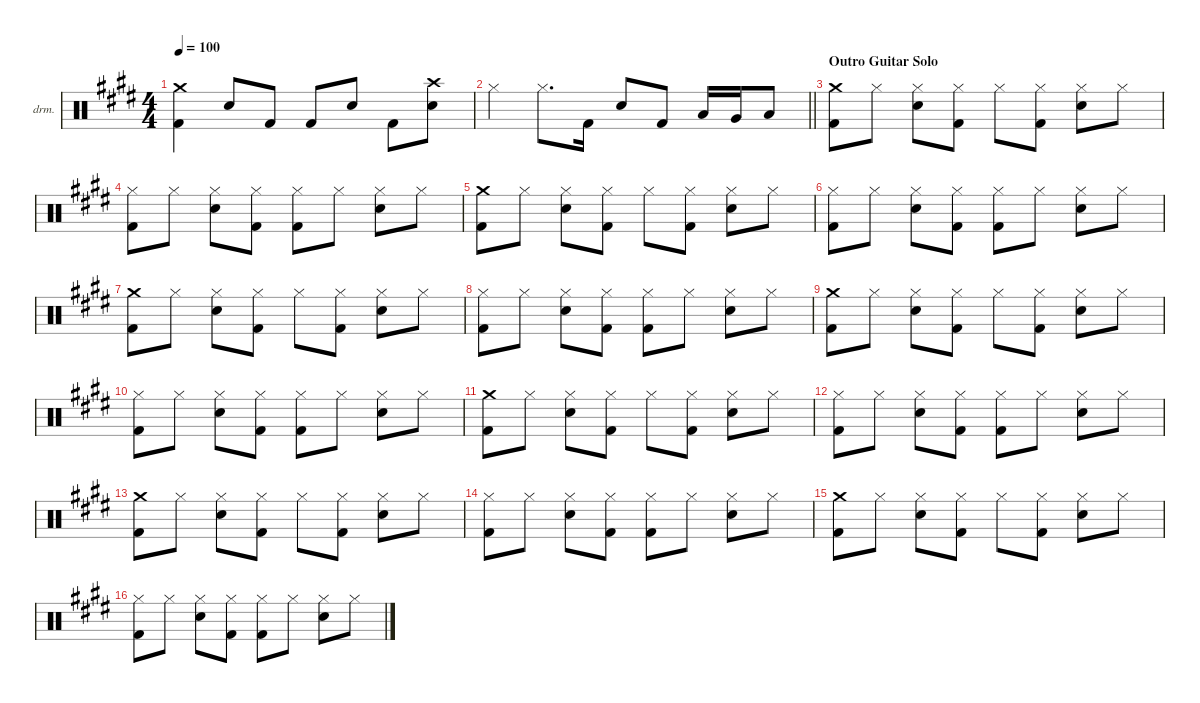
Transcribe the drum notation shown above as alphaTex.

\defaultSystemsLayout 4
\hideDynamics
\bracketExtendMode nobrackets
\firstSystemTrackNameOrientation horizontal
\otherSystemsTrackNameOrientation horizontal
\track ("Percussion" "drm.") {instrument percussion}
\staff {score}
\articulation defaults
\ts (4 4)
\tempo 100
\clef neutral
\ks c#minor
("Crash medium (hit)"{acc forcenatural} "Kick (hit) 2"{acc forcenatural}).4{dy f} "Snare (hit) 2"{acc forcenatural}.8 "Kick (hit) 2"{acc forcenatural}.8 "Kick (hit) 2"{acc forcenatural}.8 "Snare (hit) 2"{acc forcenatural}.8 "Kick (hit) 2"{acc forcenatural}.8 ("Crash high (hit)"{acc forcenatural} "Snare (hit) 2"{acc forcenatural}).8 |
\barLineRight lightlight "Hi-Hat (closed)"{acc forcenatural}.4 "Hi-Hat (closed)"{acc forcenatural}.8{d} "Kick (hit) 2"{acc forcenatural}.16 "Snare (hit) 2"{acc forcenatural}.8 "Kick (hit) 2"{acc forcenatural}.8 "Low Tom (hit)"{acc forcenatural}.16 "Very Low Tom (hit)"{acc forcenatural}.16 "Low Floor Tom (hit)"{acc forcenatural}.8
|
\section ("" "Outro Guitar Solo")
("Crash medium (hit)"{acc forcenatural} "Kick (hit) 2"{acc forcenatural}).8 "Hi-Hat (closed)"{acc forcenatural}.8 ("Hi-Hat (closed)"{acc forcenatural} "Snare (hit) 2"{acc forcenatural}).8 ("Hi-Hat (closed)"{acc forcenatural} "Kick (hit) 2"{acc forcenatural}).8 "Hi-Hat (closed)"{acc forcenatural}.8 ("Hi-Hat (closed)"{acc forcenatural} "Kick (hit) 2"{acc forcenatural}).8 ("Hi-Hat (closed)"{acc forcenatural} "Snare (hit) 2"{acc forcenatural}).8 "Hi-Hat (closed)"{acc forcenatural}.8 |
("Hi-Hat (closed)"{acc forcenatural} "Kick (hit) 2"{acc forcenatural}).8 "Hi-Hat (closed)"{acc forcenatural}.8 ("Hi-Hat (closed)"{acc forcenatural} "Snare (hit) 2"{acc forcenatural}).8 ("Hi-Hat (closed)"{acc forcenatural} "Kick (hit) 2"{acc forcenatural}).8 ("Hi-Hat (closed)"{acc forcenatural} "Kick (hit) 2"{acc forcenatural}).8 "Hi-Hat (closed)"{acc forcenatural}.8 ("Hi-Hat (closed)"{acc forcenatural} "Snare (hit) 2"{acc forcenatural}).8 "Hi-Hat (closed)"{acc forcenatural}.8 |
("Crash medium (hit)"{acc forcenatural} "Kick (hit) 2"{acc forcenatural}).8 "Hi-Hat (closed)"{acc forcenatural}.8 ("Hi-Hat (closed)"{acc forcenatural} "Snare (hit) 2"{acc forcenatural}).8 ("Hi-Hat (closed)"{acc forcenatural} "Kick (hit) 2"{acc forcenatural}).8 "Hi-Hat (closed)"{acc forcenatural}.8 ("Hi-Hat (closed)"{acc forcenatural} "Kick (hit) 2"{acc forcenatural}).8 ("Hi-Hat (closed)"{acc forcenatural} "Snare (hit) 2"{acc forcenatural}).8 "Hi-Hat (closed)"{acc forcenatural}.8 |
("Hi-Hat (closed)"{acc forcenatural} "Kick (hit) 2"{acc forcenatural}).8 "Hi-Hat (closed)"{acc forcenatural}.8 ("Hi-Hat (closed)"{acc forcenatural} "Snare (hit) 2"{acc forcenatural}).8 ("Hi-Hat (closed)"{acc forcenatural} "Kick (hit) 2"{acc forcenatural}).8 ("Hi-Hat (closed)"{acc forcenatural} "Kick (hit) 2"{acc forcenatural}).8 "Hi-Hat (closed)"{acc forcenatural}.8 ("Hi-Hat (closed)"{acc forcenatural} "Snare (hit) 2"{acc forcenatural}).8 "Hi-Hat (closed)"{acc forcenatural}.8 |
("Crash medium (hit)"{acc forcenatural} "Kick (hit) 2"{acc forcenatural}).8 "Hi-Hat (closed)"{acc forcenatural}.8 ("Hi-Hat (closed)"{acc forcenatural} "Snare (hit) 2"{acc forcenatural}).8 ("Hi-Hat (closed)"{acc forcenatural} "Kick (hit) 2"{acc forcenatural}).8 "Hi-Hat (closed)"{acc forcenatural}.8 ("Hi-Hat (closed)"{acc forcenatural} "Kick (hit) 2"{acc forcenatural}).8 ("Hi-Hat (closed)"{acc forcenatural} "Snare (hit) 2"{acc forcenatural}).8 "Hi-Hat (closed)"{acc forcenatural}.8 |
("Hi-Hat (closed)"{acc forcenatural} "Kick (hit) 2"{acc forcenatural}).8 "Hi-Hat (closed)"{acc forcenatural}.8 ("Hi-Hat (closed)"{acc forcenatural} "Snare (hit) 2"{acc forcenatural}).8 ("Hi-Hat (closed)"{acc forcenatural} "Kick (hit) 2"{acc forcenatural}).8 ("Hi-Hat (closed)"{acc forcenatural} "Kick (hit) 2"{acc forcenatural}).8 "Hi-Hat (closed)"{acc forcenatural}.8 ("Hi-Hat (closed)"{acc forcenatural} "Snare (hit) 2"{acc forcenatural}).8 "Hi-Hat (closed)"{acc forcenatural}.8 |
("Crash medium (hit)"{acc forcenatural} "Kick (hit) 2"{acc forcenatural}).8 "Hi-Hat (closed)"{acc forcenatural}.8 ("Hi-Hat (closed)"{acc forcenatural} "Snare (hit) 2"{acc forcenatural}).8 ("Hi-Hat (closed)"{acc forcenatural} "Kick (hit) 2"{acc forcenatural}).8 "Hi-Hat (closed)"{acc forcenatural}.8 ("Hi-Hat (closed)"{acc forcenatural} "Kick (hit) 2"{acc forcenatural}).8 ("Hi-Hat (closed)"{acc forcenatural} "Snare (hit) 2"{acc forcenatural}).8 "Hi-Hat (closed)"{acc forcenatural}.8 |
("Hi-Hat (closed)"{acc forcenatural} "Kick (hit) 2"{acc forcenatural}).8 "Hi-Hat (closed)"{acc forcenatural}.8 ("Hi-Hat (closed)"{acc forcenatural} "Snare (hit) 2"{acc forcenatural}).8 ("Hi-Hat (closed)"{acc forcenatural} "Kick (hit) 2"{acc forcenatural}).8 ("Hi-Hat (closed)"{acc forcenatural} "Kick (hit) 2"{acc forcenatural}).8 "Hi-Hat (closed)"{acc forcenatural}.8 ("Hi-Hat (closed)"{acc forcenatural} "Snare (hit) 2"{acc forcenatural}).8 "Hi-Hat (closed)"{acc forcenatural}.8 |
("Crash medium (hit)"{acc forcenatural} "Kick (hit) 2"{acc forcenatural}).8 "Hi-Hat (closed)"{acc forcenatural}.8 ("Hi-Hat (closed)"{acc forcenatural} "Snare (hit) 2"{acc forcenatural}).8 ("Hi-Hat (closed)"{acc forcenatural} "Kick (hit) 2"{acc forcenatural}).8 "Hi-Hat (closed)"{acc forcenatural}.8 ("Hi-Hat (closed)"{acc forcenatural} "Kick (hit) 2"{acc forcenatural}).8 ("Hi-Hat (closed)"{acc forcenatural} "Snare (hit) 2"{acc forcenatural}).8 "Hi-Hat (closed)"{acc forcenatural}.8 |
("Hi-Hat (closed)"{acc forcenatural} "Kick (hit) 2"{acc forcenatural}).8 "Hi-Hat (closed)"{acc forcenatural}.8 ("Hi-Hat (closed)"{acc forcenatural} "Snare (hit) 2"{acc forcenatural}).8 ("Hi-Hat (closed)"{acc forcenatural} "Kick (hit) 2"{acc forcenatural}).8 ("Hi-Hat (closed)"{acc forcenatural} "Kick (hit) 2"{acc forcenatural}).8 "Hi-Hat (closed)"{acc forcenatural}.8 ("Hi-Hat (closed)"{acc forcenatural} "Snare (hit) 2"{acc forcenatural}).8 "Hi-Hat (closed)"{acc forcenatural}.8 |
("Crash medium (hit)"{acc forcenatural} "Kick (hit) 2"{acc forcenatural}).8 "Hi-Hat (closed)"{acc forcenatural}.8 ("Hi-Hat (closed)"{acc forcenatural} "Snare (hit) 2"{acc forcenatural}).8 ("Hi-Hat (closed)"{acc forcenatural} "Kick (hit) 2"{acc forcenatural}).8 "Hi-Hat (closed)"{acc forcenatural}.8 ("Hi-Hat (closed)"{acc forcenatural} "Kick (hit) 2"{acc forcenatural}).8 ("Hi-Hat (closed)"{acc forcenatural} "Snare (hit) 2"{acc forcenatural}).8 "Hi-Hat (closed)"{acc forcenatural}.8 |
("Hi-Hat (closed)"{acc forcenatural} "Kick (hit) 2"{acc forcenatural}).8 "Hi-Hat (closed)"{acc forcenatural}.8 ("Hi-Hat (closed)"{acc forcenatural} "Snare (hit) 2"{acc forcenatural}).8 ("Hi-Hat (closed)"{acc forcenatural} "Kick (hit) 2"{acc forcenatural}).8 ("Hi-Hat (closed)"{acc forcenatural} "Kick (hit) 2"{acc forcenatural}).8 "Hi-Hat (closed)"{acc forcenatural}.8 ("Hi-Hat (closed)"{acc forcenatural} "Snare (hit) 2"{acc forcenatural}).8 "Hi-Hat (closed)"{acc forcenatural}.8 |
("Crash medium (hit)"{acc forcenatural} "Kick (hit) 2"{acc forcenatural}).8 "Hi-Hat (closed)"{acc forcenatural}.8 ("Hi-Hat (closed)"{acc forcenatural} "Snare (hit) 2"{acc forcenatural}).8 ("Hi-Hat (closed)"{acc forcenatural} "Kick (hit) 2"{acc forcenatural}).8 "Hi-Hat (closed)"{acc forcenatural}.8 ("Hi-Hat (closed)"{acc forcenatural} "Kick (hit) 2"{acc forcenatural}).8 ("Hi-Hat (closed)"{acc forcenatural} "Snare (hit) 2"{acc forcenatural}).8 "Hi-Hat (closed)"{acc forcenatural}.8 |
("Hi-Hat (closed)"{acc forcenatural} "Kick (hit) 2"{acc forcenatural}).8 "Hi-Hat (closed)"{acc forcenatural}.8 ("Hi-Hat (closed)"{acc forcenatural} "Snare (hit) 2"{acc forcenatural}).8 ("Hi-Hat (closed)"{acc forcenatural} "Kick (hit) 2"{acc forcenatural}).8 ("Hi-Hat (closed)"{acc forcenatural} "Kick (hit) 2"{acc forcenatural}).8 "Hi-Hat (closed)"{acc forcenatural}.8 ("Hi-Hat (closed)"{acc forcenatural} "Snare (hit) 2"{acc forcenatural}).8 "Hi-Hat (closed)"{acc forcenatural}.8
